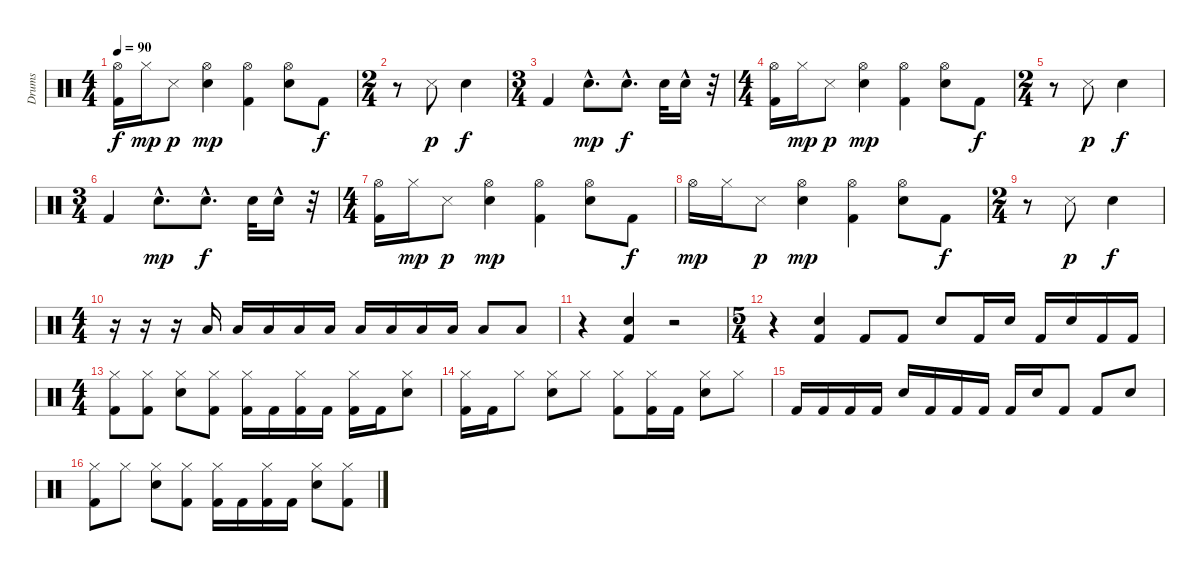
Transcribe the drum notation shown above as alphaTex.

\track ("Drums" "Drums") {instrument percussion}
\staff {score}
\articulation defaults
\ts (4 4)
\tempo 90
\clef neutral
\ks c
("Hi-Hat (open)" "Kick (hit) 2").16{dy f} "Hi-Hat (closed)".16{dy mp} "Metronome (hit)".8{dy p} ("Hi-Hat (open)" "Electric Snare (hit)").4{dy mp} ("Hi-Hat (open)" "Kick (hit) 2").4 ("Hi-Hat (open)" "Electric Snare (hit)").8 "Kick (hit) 2".8{dy f} |
\ts (2 4)
r.8 "Metronome (hit)".8{dy p} "Electric Snare (hit)".4{dy f} |
\ts (3 4)
"Kick (hit) 2".4 "Snare (hit) 2"{hac}.8{d dy mp} "Electric Snare (hit)"{hac}.8{d dy f} "Electric Snare (hit)".32 "Electric Snare (hit)"{hac}.16 r.32 |
\ts (4 4)
("Hi-Hat (open)" "Kick (hit) 2").16 "Hi-Hat (closed)".16{dy mp} "Metronome (hit)".8{dy p} ("Hi-Hat (open)" "Electric Snare (hit)").4{dy mp} ("Hi-Hat (open)" "Kick (hit) 2").4 ("Hi-Hat (open)" "Electric Snare (hit)").8 "Kick (hit) 2".8{dy f} |
\ts (2 4)
r.8 "Metronome (hit)".8{dy p} "Electric Snare (hit)".4{dy f} |
\ts (3 4)
"Kick (hit) 2".4 "Snare (hit) 2"{hac}.8{d dy mp} "Electric Snare (hit)"{hac}.8{d dy f} "Electric Snare (hit)".32 "Electric Snare (hit)"{hac}.16 r.32 |
\ts (4 4)
("Hi-Hat (open)" "Kick (hit) 2").16 "Hi-Hat (closed)".16{dy mp} "Metronome (hit)".8{dy p} ("Hi-Hat (open)" "Electric Snare (hit)").4{dy mp} ("Hi-Hat (open)" "Kick (hit) 2").4 ("Hi-Hat (open)" "Electric Snare (hit)").8 "Kick (hit) 2".8{dy f} |
"Hi-Hat (open)".16{dy mp} "Hi-Hat (closed)".16 "Metronome (hit)".8{dy p} ("Hi-Hat (open)" "Electric Snare (hit)").4{dy mp} ("Hi-Hat (open)" "Kick (hit) 2").4 ("Hi-Hat (open)" "Electric Snare (hit)").8 "Kick (hit) 2".8{dy f} |
\ts (2 4)
r.8 "Metronome (hit)".8{dy p} "Electric Snare (hit)".4{dy f} |
\ts (4 4)
r.16 r.16 r.16 "Low Floor Tom (hit)".16 "Low Floor Tom (hit)".16 "Low Floor Tom (hit)".16 "Low Floor Tom (hit)".16 "Low Floor Tom (hit)".16 "Low Floor Tom (hit)".16 "Low Floor Tom (hit)".16 "Low Floor Tom (hit)".16 "Low Floor Tom (hit)".16 "Low Floor Tom (hit)".8 "Low Floor Tom (hit)".8 |
r.4 ("Electric Snare (hit)" "Kick (hit) 2").4 r.2 |
\ts (5 4)
r.4 ("Electric Snare (hit)" "Kick (hit) 2").4 "Kick (hit) 2".8 "Kick (hit) 2".8 "Electric Snare (hit)".8 "Kick (hit) 2".16 "Electric Snare (hit)".16 "Kick (hit) 2".16 "Electric Snare (hit)".16 "Kick (hit) 2".16 "Kick (hit) 2".16 |
\ts (4 4)
("Hi-Hat (closed)" "Kick (hit) 2").8 ("Hi-Hat (closed)" "Kick (hit) 2").8 ("Hi-Hat (closed)" "Electric Snare (hit)").8 ("Hi-Hat (closed)" "Kick (hit) 2").8 ("Hi-Hat (closed)" "Kick (hit) 2").16 "Kick (hit) 2".16 ("Hi-Hat (closed)" "Kick (hit) 2").16 "Kick (hit) 2".16 ("Hi-Hat (closed)" "Kick (hit) 2").16 "Kick (hit) 2".16 ("Hi-Hat (closed)" "Electric Snare (hit)").8 |
("Hi-Hat (closed)" "Kick (hit) 2").16 "Kick (hit) 2".16 "Hi-Hat (closed)".8 ("Hi-Hat (closed)" "Electric Snare (hit)").8 "Hi-Hat (closed)".8 ("Hi-Hat (closed)" "Kick (hit) 2").8 ("Hi-Hat (closed)" "Kick (hit) 2").16 "Kick (hit) 2".16 ("Hi-Hat (closed)" "Electric Snare (hit)").8 "Hi-Hat (closed)".8 |
"Kick (hit) 2".16 "Kick (hit) 2".16 "Kick (hit) 2".16 "Kick (hit) 2".16 "Electric Snare (hit)".16 "Kick (hit) 2".16 "Kick (hit) 2".16 "Kick (hit) 2".16 "Kick (hit) 2".16 "Electric Snare (hit)".16 "Kick (hit) 2".8 "Kick (hit) 2".8 "Electric Snare (hit)".8 |
("Hi-Hat (closed)" "Kick (hit) 2").8 "Hi-Hat (closed)".8 ("Hi-Hat (closed)" "Electric Snare (hit)").8 ("Hi-Hat (closed)" "Kick (hit) 2").8 ("Hi-Hat (closed)" "Kick (hit) 2").16 "Kick (hit) 2".16 ("Hi-Hat (closed)" "Kick (hit) 2").16 "Kick (hit) 2".16 ("Hi-Hat (closed)" "Electric Snare (hit)").8 ("Hi-Hat (closed)" "Kick (hit) 2").8
